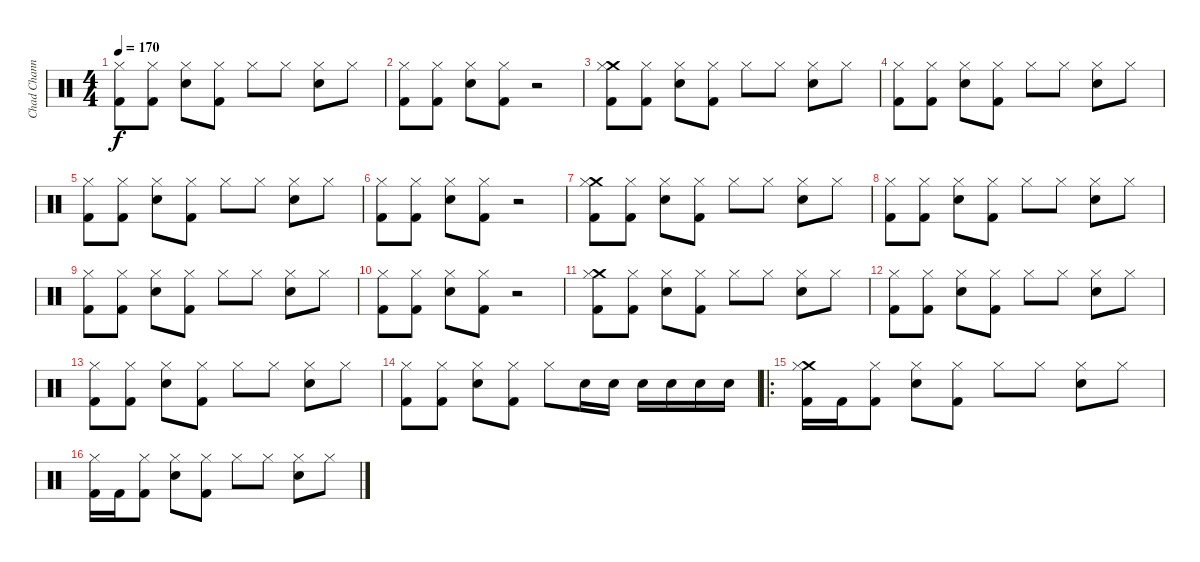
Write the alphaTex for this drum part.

\track ("Chad Channing" "Chad Chann") {instrument percussion}
\staff {score}
\articulation defaults
\ts (4 4)
\tempo 170
\clef neutral
\ks c
("Hi-Hat (closed)" "Kick (hit) 2").8{dy f} ("Hi-Hat (closed)" "Kick (hit) 2").8 ("Hi-Hat (closed)" "Snare (hit) 2").8 ("Hi-Hat (closed)" "Kick (hit) 2").8 "Hi-Hat (closed)".8 "Hi-Hat (closed)".8 ("Hi-Hat (closed)" "Snare (hit) 2").8 "Hi-Hat (closed)".8 |
("Hi-Hat (closed)" "Kick (hit) 2").8 ("Hi-Hat (closed)" "Kick (hit) 2").8 ("Hi-Hat (closed)" "Snare (hit) 2").8 ("Hi-Hat (closed)" "Kick (hit) 2").8 r.2 |
("Crash medium (hit)" "Hi-Hat (closed)" "Kick (hit) 2").8 ("Hi-Hat (closed)" "Kick (hit) 2").8 ("Hi-Hat (closed)" "Snare (hit) 2").8 ("Hi-Hat (closed)" "Kick (hit) 2").8 "Hi-Hat (closed)".8 "Hi-Hat (closed)".8 ("Hi-Hat (closed)" "Snare (hit) 2").8 "Hi-Hat (closed)".8 |
("Hi-Hat (closed)" "Kick (hit) 2").8 ("Hi-Hat (closed)" "Kick (hit) 2").8 ("Hi-Hat (closed)" "Snare (hit) 2").8 ("Hi-Hat (closed)" "Kick (hit) 2").8 "Hi-Hat (closed)".8 "Hi-Hat (closed)".8 ("Hi-Hat (closed)" "Snare (hit) 2").8 "Hi-Hat (closed)".8 |
("Hi-Hat (closed)" "Kick (hit) 2").8 ("Hi-Hat (closed)" "Kick (hit) 2").8 ("Hi-Hat (closed)" "Snare (hit) 2").8 ("Hi-Hat (closed)" "Kick (hit) 2").8 "Hi-Hat (closed)".8 "Hi-Hat (closed)".8 ("Hi-Hat (closed)" "Snare (hit) 2").8 "Hi-Hat (closed)".8 |
("Hi-Hat (closed)" "Kick (hit) 2").8 ("Hi-Hat (closed)" "Kick (hit) 2").8 ("Hi-Hat (closed)" "Snare (hit) 2").8 ("Hi-Hat (closed)" "Kick (hit) 2").8 r.2 |
("Crash medium (hit)" "Hi-Hat (closed)" "Kick (hit) 2").8 ("Hi-Hat (closed)" "Kick (hit) 2").8 ("Hi-Hat (closed)" "Snare (hit) 2").8 ("Hi-Hat (closed)" "Kick (hit) 2").8 "Hi-Hat (closed)".8 "Hi-Hat (closed)".8 ("Hi-Hat (closed)" "Snare (hit) 2").8 "Hi-Hat (closed)".8 |
("Hi-Hat (closed)" "Kick (hit) 2").8 ("Hi-Hat (closed)" "Kick (hit) 2").8 ("Hi-Hat (closed)" "Snare (hit) 2").8 ("Hi-Hat (closed)" "Kick (hit) 2").8 "Hi-Hat (closed)".8 "Hi-Hat (closed)".8 ("Hi-Hat (closed)" "Snare (hit) 2").8 "Hi-Hat (closed)".8 |
("Hi-Hat (closed)" "Kick (hit) 2").8 ("Hi-Hat (closed)" "Kick (hit) 2").8 ("Hi-Hat (closed)" "Snare (hit) 2").8 ("Hi-Hat (closed)" "Kick (hit) 2").8 "Hi-Hat (closed)".8 "Hi-Hat (closed)".8 ("Hi-Hat (closed)" "Snare (hit) 2").8 "Hi-Hat (closed)".8 |
("Hi-Hat (closed)" "Kick (hit) 2").8 ("Hi-Hat (closed)" "Kick (hit) 2").8 ("Hi-Hat (closed)" "Snare (hit) 2").8 ("Hi-Hat (closed)" "Kick (hit) 2").8 r.2 |
("Crash medium (hit)" "Hi-Hat (closed)" "Kick (hit) 2").8 ("Hi-Hat (closed)" "Kick (hit) 2").8 ("Hi-Hat (closed)" "Snare (hit) 2").8 ("Hi-Hat (closed)" "Kick (hit) 2").8 "Hi-Hat (closed)".8 "Hi-Hat (closed)".8 ("Hi-Hat (closed)" "Snare (hit) 2").8 "Hi-Hat (closed)".8 |
("Hi-Hat (closed)" "Kick (hit) 2").8 ("Hi-Hat (closed)" "Kick (hit) 2").8 ("Hi-Hat (closed)" "Snare (hit) 2").8 ("Hi-Hat (closed)" "Kick (hit) 2").8 "Hi-Hat (closed)".8 "Hi-Hat (closed)".8 ("Hi-Hat (closed)" "Snare (hit) 2").8 "Hi-Hat (closed)".8 |
("Hi-Hat (closed)" "Kick (hit) 2").8 ("Hi-Hat (closed)" "Kick (hit) 2").8 ("Hi-Hat (closed)" "Snare (hit) 2").8 ("Hi-Hat (closed)" "Kick (hit) 2").8 "Hi-Hat (closed)".8 "Hi-Hat (closed)".8 ("Hi-Hat (closed)" "Snare (hit) 2").8 "Hi-Hat (closed)".8 |
("Hi-Hat (closed)" "Kick (hit) 2").8 ("Hi-Hat (closed)" "Kick (hit) 2").8 ("Hi-Hat (closed)" "Snare (hit) 2").8 ("Hi-Hat (closed)" "Kick (hit) 2").8 "Hi-Hat (closed)".8 "Snare (hit) 2".16 "Snare (hit) 2".16 "Snare (hit) 2".16 "Snare (hit) 2".16 "Snare (hit) 2".16 "Snare (hit) 2".16 |
\ro
("Crash medium (hit)" "Hi-Hat (closed)" "Kick (hit) 2").16 "Kick (hit) 2".16 ("Hi-Hat (closed)" "Kick (hit) 2").8 ("Hi-Hat (closed)" "Snare (hit) 2").8 ("Hi-Hat (closed)" "Kick (hit) 2").8 "Hi-Hat (closed)".8 "Hi-Hat (closed)".8 ("Hi-Hat (closed)" "Snare (hit) 2").8 "Hi-Hat (closed)".8 |
("Hi-Hat (closed)" "Kick (hit) 2").16 "Kick (hit) 2".16 ("Hi-Hat (closed)" "Kick (hit) 2").8 ("Hi-Hat (closed)" "Snare (hit) 2").8 ("Hi-Hat (closed)" "Kick (hit) 2").8 "Hi-Hat (closed)".8 "Hi-Hat (closed)".8 ("Hi-Hat (closed)" "Snare (hit) 2").8 "Hi-Hat (closed)".8
